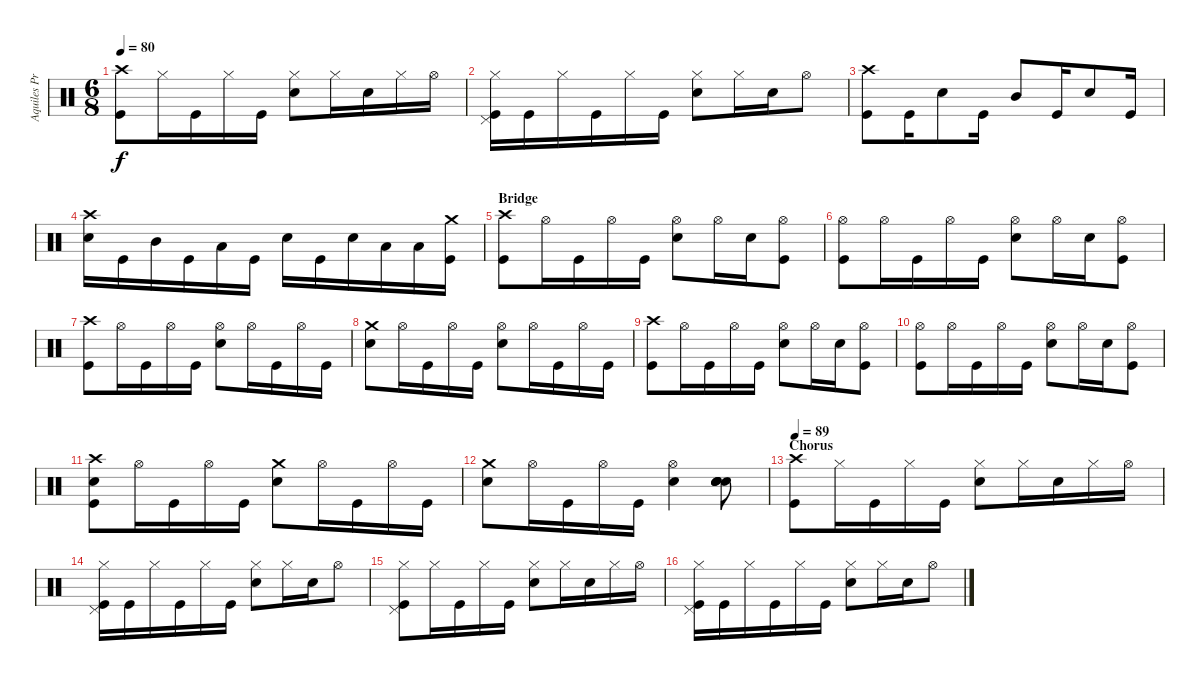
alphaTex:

\track ("Aquiles Priester" "Aquiles Pr") {instrument percussion}
\staff {score}
\articulation defaults
\ts (6 8)
\tempo 80
\clef neutral
\ks c
("Crash high (hit)" "Kick (hit)").8{dy f} "Hi-Hat (closed)".16 "Kick (hit)".16 "Hi-Hat (closed)".16 "Kick (hit)".16 ("Hi-Hat (closed)" "Electric Snare (hit)").8 "Hi-Hat (closed)".16 "Electric Snare (hit)".16 "Hi-Hat (closed)".16 "Hi-Hat (open)".16 |
("Hi-Hat (closed)" "Pedal Hi-Hat (hit)" "Kick (hit)").16 "Kick (hit)".16 "Hi-Hat (closed)".16 "Kick (hit)".16 "Hi-Hat (closed)".16 "Kick (hit)".16 ("Hi-Hat (closed)" "Electric Snare (hit)").8 "Hi-Hat (closed)".16 "Electric Snare (hit)".16 "Hi-Hat (open)".8 |
("Crash high (hit)" "Kick (hit)").8 "Kick (hit)".16 "Electric Snare (hit)".8 "Kick (hit)".16 "Mid Tom (hit)".8 "Kick (hit)".16 "Electric Snare (hit)".8 "Kick (hit)".16 |
("Crash high (hit)" "Electric Snare (hit)").16 "Kick (hit)".16 "Mid Tom (hit)".16 "Kick (hit)".16 "Low Tom (hit)".16 "Kick (hit)".16 "Electric Snare (hit)".16 "Kick (hit)".16 "Electric Snare (hit)".16 "Low Tom (hit)".16 "Low Tom (hit)".16 ("Crash medium (hit)" "Kick (hit)").16 |
\section ("" "Bridge")
("Crash high (hit)" "Kick (hit)").8 "Hi-Hat (open)".16 "Kick (hit)".16 "Hi-Hat (open)".16 "Kick (hit)".16 ("Hi-Hat (open)" "Electric Snare (hit)").8 "Hi-Hat (open)".16 "Electric Snare (hit)".16 ("Hi-Hat (open)" "Kick (hit)").8 |
("Hi-Hat (open)" "Kick (hit)").8 "Hi-Hat (open)".16 "Kick (hit)".16 "Hi-Hat (open)".16 "Kick (hit)".16 ("Hi-Hat (open)" "Electric Snare (hit)").8 "Hi-Hat (open)".16 "Electric Snare (hit)".16 ("Hi-Hat (open)" "Kick (hit)").8 |
("Crash high (hit)" "Kick (hit)").8 "Hi-Hat (open)".16 "Kick (hit)".16 "Hi-Hat (open)".16 "Kick (hit)".16 ("Hi-Hat (open)" "Electric Snare (hit)").8 "Hi-Hat (open)".16 "Kick (hit)".16 "Hi-Hat (open)".16 "Kick (hit)".16 |
("Crash medium (hit)" "Electric Snare (hit)").8 "Hi-Hat (open)".16 "Kick (hit)".16 "Hi-Hat (open)".16 "Kick (hit)".16 ("Hi-Hat (open)" "Electric Snare (hit)").8 "Hi-Hat (open)".16 "Kick (hit)".16 "Hi-Hat (open)".16 "Kick (hit)".16 |
("Crash high (hit)" "Kick (hit)").8 "Hi-Hat (open)".16 "Kick (hit)".16 "Hi-Hat (open)".16 "Kick (hit)".16 ("Hi-Hat (open)" "Electric Snare (hit)").8 "Hi-Hat (open)".16 "Electric Snare (hit)".16 ("Hi-Hat (open)" "Kick (hit)").8 |
("Hi-Hat (open)" "Kick (hit)").8 "Hi-Hat (open)".16 "Kick (hit)".16 "Hi-Hat (open)".16 "Kick (hit)".16 ("Hi-Hat (open)" "Electric Snare (hit)").8 "Hi-Hat (open)".16 "Electric Snare (hit)".16 ("Hi-Hat (open)" "Kick (hit)").8 |
("Crash high (hit)" "Electric Snare (hit)" "Kick (hit)").8 "Hi-Hat (open)".16 "Kick (hit)".16 "Hi-Hat (open)".16 "Kick (hit)".16 ("Crash medium (hit)" "Electric Snare (hit)").8 "Hi-Hat (open)".16 "Kick (hit)".16 "Hi-Hat (open)".16 "Kick (hit)".16 |
("Crash medium (hit)" "Electric Snare (hit)").8 "Hi-Hat (open)".16 "Kick (hit)".16 "Hi-Hat (open)".16 "Kick (hit)".16 ("Hi-Hat (open)" "Electric Snare (hit)").4 ("Electric Snare (hit)" "Electric Snare (hit)" "Electric Snare (hit)" "Electric Snare (hit)").8 |
\section ("" "Chorus")
\tempo 89
("Crash high (hit)" "Kick (hit)").8 "Hi-Hat (closed)".16 "Kick (hit)".16 "Hi-Hat (closed)".16 "Kick (hit)".16 ("Hi-Hat (closed)" "Electric Snare (hit)").8 "Hi-Hat (closed)".16 "Electric Snare (hit)".16 "Hi-Hat (closed)".16 "Hi-Hat (open)".16 |
("Hi-Hat (closed)" "Pedal Hi-Hat (hit)" "Kick (hit)").16 "Kick (hit)".16 "Hi-Hat (closed)".16 "Kick (hit)".16 "Hi-Hat (closed)".16 "Kick (hit)".16 ("Hi-Hat (closed)" "Electric Snare (hit)").8 "Hi-Hat (closed)".16 "Electric Snare (hit)".16 "Hi-Hat (open)".8 |
("Hi-Hat (closed)" "Pedal Hi-Hat (hit)" "Kick (hit)").8 "Hi-Hat (closed)".16 "Kick (hit)".16 "Hi-Hat (closed)".16 "Kick (hit)".16 ("Hi-Hat (closed)" "Electric Snare (hit)").8 "Hi-Hat (closed)".16 "Electric Snare (hit)".16 "Hi-Hat (closed)".16 "Hi-Hat (open)".16 |
("Hi-Hat (closed)" "Pedal Hi-Hat (hit)" "Kick (hit)").16 "Kick (hit)".16 "Hi-Hat (closed)".16 "Kick (hit)".16 "Hi-Hat (closed)".16 "Kick (hit)".16 ("Hi-Hat (closed)" "Electric Snare (hit)").8 "Hi-Hat (closed)".16 "Electric Snare (hit)".16 "Hi-Hat (open)".8
